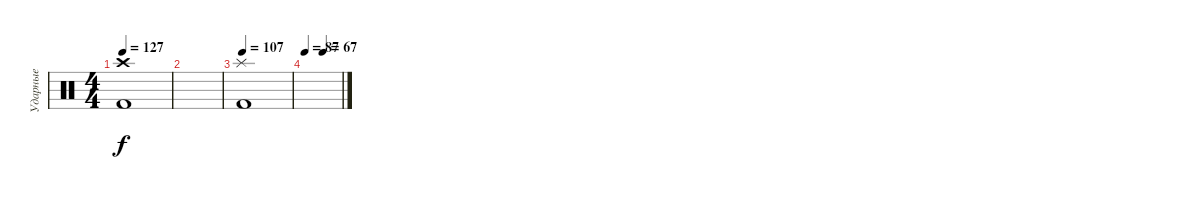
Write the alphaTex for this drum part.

\track ("Ударные" "Ударные") {instrument percussion}
\staff {score}
\articulation defaults
\ts (4 4)
\tempo 127
\clef neutral
\ks c
("Crash high (hit)" "Kick (hit) 2").1{dy f} |
|
\tempo 107
("Splash (hit)" "Kick (hit) 2").1 |
\tempo 87
\tempo (67 0.5)
